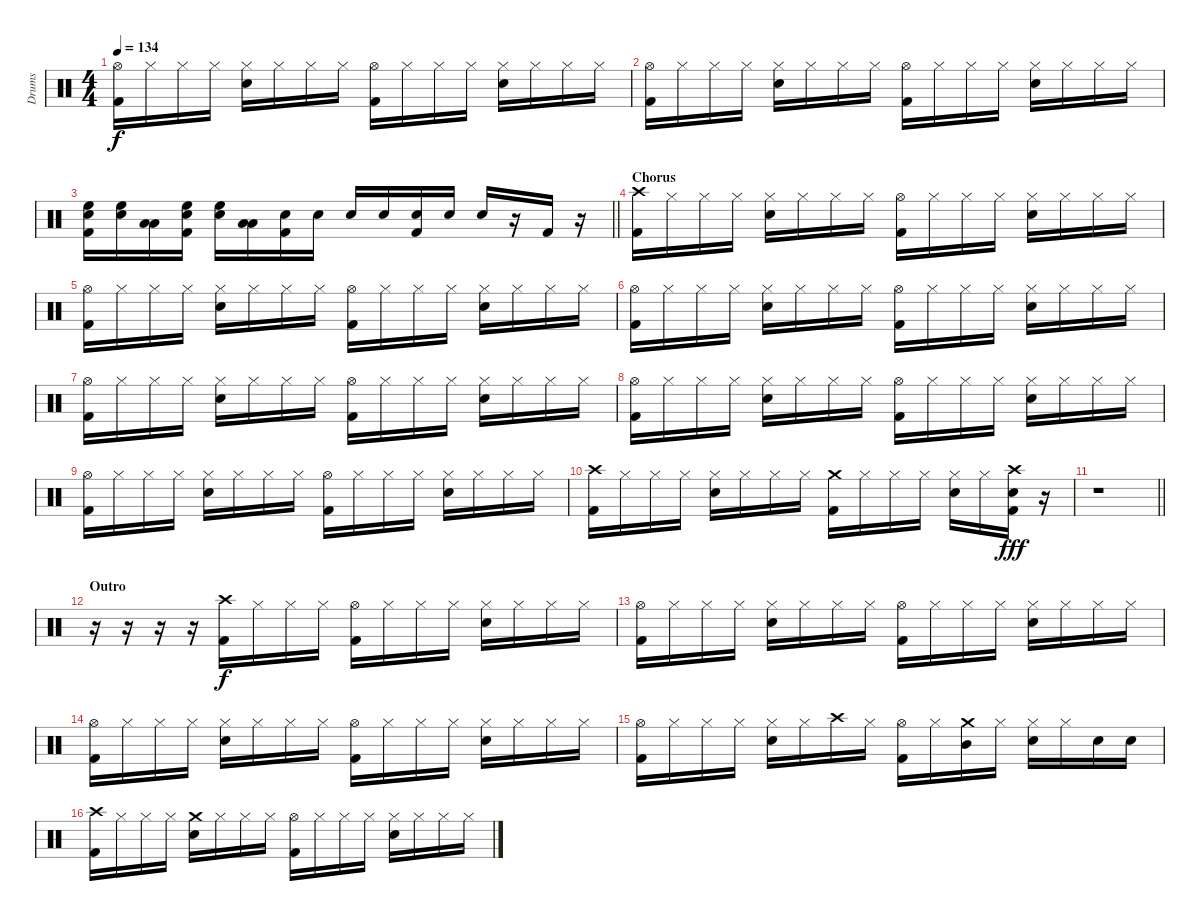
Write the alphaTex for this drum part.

\track ("Drums" "Drums") {instrument percussion}
\staff {score}
\articulation defaults
\ts (4 4)
\tempo 134
\clef neutral
\ks c
("Hi-Hat (open)" "Kick (hit) 2").16{dy f} "Hi-Hat (closed)".16 "Hi-Hat (closed)".16 "Hi-Hat (closed)".16 ("Hi-Hat (closed)" "Snare (hit) 2").16 "Hi-Hat (closed)".16 "Hi-Hat (closed)".16 "Hi-Hat (closed)".16 ("Hi-Hat (open)" "Kick (hit) 2").16 "Hi-Hat (closed)".16 "Hi-Hat (closed)".16 "Hi-Hat (closed)".16 ("Hi-Hat (closed)" "Snare (hit) 2").16 "Hi-Hat (closed)".16 "Hi-Hat (closed)".16 "Hi-Hat (closed)".16 |
("Hi-Hat (open)" "Kick (hit) 2").16 "Hi-Hat (closed)".16 "Hi-Hat (closed)".16 "Hi-Hat (closed)".16 ("Hi-Hat (closed)" "Snare (hit) 2").16 "Hi-Hat (closed)".16 "Hi-Hat (closed)".16 "Hi-Hat (closed)".16 ("Hi-Hat (open)" "Kick (hit) 2").16 "Hi-Hat (closed)".16 "Hi-Hat (closed)".16 "Hi-Hat (closed)".16 ("Hi-Hat (closed)" "Snare (hit) 2").16 "Hi-Hat (closed)".16 "Hi-Hat (closed)".16 "Hi-Hat (closed)".16 |
\barLineRight lightlight
("Snare (hit) 2" "High Floor Tom (hit)" "Kick (hit) 2").16 ("Snare (hit) 2" "High Floor Tom (hit)").16 ("Low Tom (hit)" "Low Floor Tom (hit)").16 ("Snare (hit) 2" "High Floor Tom (hit)" "Kick (hit) 2").16 ("Snare (hit) 2" "High Floor Tom (hit)").16 ("Low Tom (hit)" "Low Floor Tom (hit)").16 ("Snare (hit) 2" "Kick (hit) 2").16 "Snare (hit) 2".16 "Snare (hit) 2".16 "Snare (hit) 2".16 ("Snare (hit) 2" "Kick (hit) 2").16 "Snare (hit) 2".16 "Snare (hit) 2".16 r.16 "Kick (hit) 2".16 r.16 |
\section ("" "Chorus")
("Crash high (hit)" "Kick (hit) 2").16 "Hi-Hat (closed)".16 "Hi-Hat (closed)".16 "Hi-Hat (closed)".16 ("Hi-Hat (closed)" "Snare (hit) 2").16 "Hi-Hat (closed)".16 "Hi-Hat (closed)".16 "Hi-Hat (closed)".16 ("Hi-Hat (open)" "Kick (hit) 2").16 "Hi-Hat (closed)".16 "Hi-Hat (closed)".16 "Hi-Hat (closed)".16 ("Hi-Hat (closed)" "Snare (hit) 2").16 "Hi-Hat (closed)".16 "Hi-Hat (closed)".16 "Hi-Hat (closed)".16 |
("Hi-Hat (open)" "Kick (hit) 2").16 "Hi-Hat (closed)".16 "Hi-Hat (closed)".16 "Hi-Hat (closed)".16 ("Hi-Hat (closed)" "Snare (hit) 2").16 "Hi-Hat (closed)".16 "Hi-Hat (closed)".16 "Hi-Hat (closed)".16 ("Hi-Hat (open)" "Kick (hit) 2").16 "Hi-Hat (closed)".16 "Hi-Hat (closed)".16 "Hi-Hat (closed)".16 ("Hi-Hat (closed)" "Snare (hit) 2").16 "Hi-Hat (closed)".16 "Hi-Hat (closed)".16 "Hi-Hat (closed)".16 |
("Hi-Hat (open)" "Kick (hit) 2").16 "Hi-Hat (closed)".16 "Hi-Hat (closed)".16 "Hi-Hat (closed)".16 ("Hi-Hat (closed)" "Snare (hit) 2").16 "Hi-Hat (closed)".16 "Hi-Hat (closed)".16 "Hi-Hat (closed)".16 ("Hi-Hat (open)" "Kick (hit) 2").16 "Hi-Hat (closed)".16 "Hi-Hat (closed)".16 "Hi-Hat (closed)".16 ("Hi-Hat (closed)" "Snare (hit) 2").16 "Hi-Hat (closed)".16 "Hi-Hat (closed)".16 "Hi-Hat (closed)".16 |
("Hi-Hat (open)" "Kick (hit) 2").16 "Hi-Hat (closed)".16 "Hi-Hat (closed)".16 "Hi-Hat (closed)".16 ("Hi-Hat (closed)" "Snare (hit) 2").16 "Hi-Hat (closed)".16 "Hi-Hat (closed)".16 "Hi-Hat (closed)".16 ("Hi-Hat (open)" "Kick (hit) 2").16 "Hi-Hat (closed)".16 "Hi-Hat (closed)".16 "Hi-Hat (closed)".16 ("Hi-Hat (closed)" "Snare (hit) 2").16 "Hi-Hat (closed)".16 "Hi-Hat (closed)".16 "Hi-Hat (closed)".16 |
("Hi-Hat (open)" "Kick (hit) 2").16 "Hi-Hat (closed)".16 "Hi-Hat (closed)".16 "Hi-Hat (closed)".16 ("Hi-Hat (closed)" "Snare (hit) 2").16 "Hi-Hat (closed)".16 "Hi-Hat (closed)".16 "Hi-Hat (closed)".16 ("Hi-Hat (open)" "Kick (hit) 2").16 "Hi-Hat (closed)".16 "Hi-Hat (closed)".16 "Hi-Hat (closed)".16 ("Hi-Hat (closed)" "Snare (hit) 2").16 "Hi-Hat (closed)".16 "Hi-Hat (closed)".16 "Hi-Hat (closed)".16 |
("Hi-Hat (open)" "Kick (hit) 2").16 "Hi-Hat (closed)".16 "Hi-Hat (closed)".16 "Hi-Hat (closed)".16 ("Hi-Hat (closed)" "Snare (hit) 2").16 "Hi-Hat (closed)".16 "Hi-Hat (closed)".16 "Hi-Hat (closed)".16 ("Hi-Hat (open)" "Kick (hit) 2").16 "Hi-Hat (closed)".16 "Hi-Hat (closed)".16 "Hi-Hat (closed)".16 ("Hi-Hat (closed)" "Snare (hit) 2").16 "Hi-Hat (closed)".16 "Hi-Hat (closed)".16 "Hi-Hat (closed)".16 |
("Crash high (hit)" "Kick (hit) 2").16 "Hi-Hat (closed)".16 "Hi-Hat (closed)".16 "Hi-Hat (closed)".16 ("Hi-Hat (closed)" "Snare (hit) 2").16 "Hi-Hat (closed)".16 "Hi-Hat (closed)".16 "Hi-Hat (closed)".16 ("Crash medium (hit)" "Kick (hit) 2").16 "Hi-Hat (closed)".16 "Hi-Hat (closed)".16 "Hi-Hat (closed)".16 ("Hi-Hat (closed)" "Snare (hit) 2").16 "Hi-Hat (closed)".16 ("Crash high (hit)" "Snare (hit) 2" "Kick (hit) 2").16{dy fff} r.16 |
\barLineRight lightlight
r.1 |
\section ("" "Outro")
r.16 r.16 r.16 r.16 ("Crash high (hit)" "Kick (hit) 2").16{dy f} "Hi-Hat (closed)".16 "Hi-Hat (closed)".16 "Hi-Hat (closed)".16 ("Hi-Hat (open)" "Kick (hit) 2").16 "Hi-Hat (closed)".16 "Hi-Hat (closed)".16 "Hi-Hat (closed)".16 ("Hi-Hat (closed)" "Snare (hit) 2").16 "Hi-Hat (closed)".16 "Hi-Hat (closed)".16 "Hi-Hat (closed)".16 |
("Hi-Hat (open)" "Kick (hit) 2").16 "Hi-Hat (closed)".16 "Hi-Hat (closed)".16 "Hi-Hat (closed)".16 ("Hi-Hat (closed)" "Snare (hit) 2").16 "Hi-Hat (closed)".16 "Hi-Hat (closed)".16 "Hi-Hat (closed)".16 ("Hi-Hat (open)" "Kick (hit) 2").16 "Hi-Hat (closed)".16 "Hi-Hat (closed)".16 "Hi-Hat (closed)".16 ("Hi-Hat (closed)" "Snare (hit) 2").16 "Hi-Hat (closed)".16 "Hi-Hat (closed)".16 "Hi-Hat (closed)".16 |
("Hi-Hat (open)" "Kick (hit) 2").16 "Hi-Hat (closed)".16 "Hi-Hat (closed)".16 "Hi-Hat (closed)".16 ("Hi-Hat (closed)" "Snare (hit) 2").16 "Hi-Hat (closed)".16 "Hi-Hat (closed)".16 "Hi-Hat (closed)".16 ("Hi-Hat (open)" "Kick (hit) 2").16 "Hi-Hat (closed)".16 "Hi-Hat (closed)".16 "Hi-Hat (closed)".16 ("Hi-Hat (closed)" "Snare (hit) 2").16 "Hi-Hat (closed)".16 "Hi-Hat (closed)".16 "Hi-Hat (closed)".16 |
("Hi-Hat (open)" "Kick (hit) 2").16 "Hi-Hat (closed)".16 "Hi-Hat (closed)".16 "Hi-Hat (closed)".16 ("Hi-Hat (closed)" "Snare (hit) 2").16 "Hi-Hat (closed)".16 "Crash high (hit)".16 "Hi-Hat (closed)".16 ("Hi-Hat (open)" "Kick (hit) 2").16 "Hi-Hat (closed)".16 ("Crash medium (hit)" "Mid Tom (hit)").16 "Hi-Hat (closed)".16 ("Hi-Hat (closed)" "Snare (hit) 2").16 "Hi-Hat (closed)".16 "Snare (hit) 2".16 "Snare (hit) 2".16 |
("Crash high (hit)" "Kick (hit) 2").16 "Hi-Hat (closed)".16 "Hi-Hat (closed)".16 "Hi-Hat (closed)".16 ("Crash medium (hit)" "Snare (hit) 2").16 "Hi-Hat (closed)".16 "Hi-Hat (closed)".16 "Hi-Hat (closed)".16 ("Hi-Hat (open)" "Kick (hit) 2").16 "Hi-Hat (closed)".16 "Hi-Hat (closed)".16 "Hi-Hat (closed)".16 ("Hi-Hat (closed)" "Snare (hit) 2").16 "Hi-Hat (closed)".16 "Hi-Hat (closed)".16 "Hi-Hat (closed)".16
